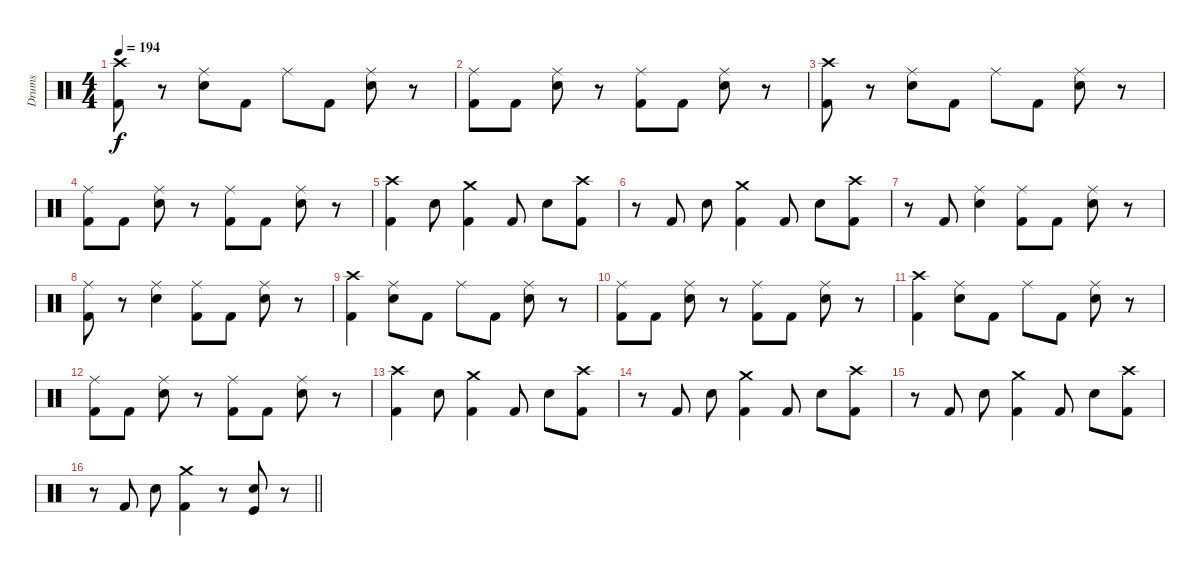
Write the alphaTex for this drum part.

\track ("Drums" "Drums") {instrument percussion}
\staff {score}
\articulation defaults
\ts (4 4)
\tempo 194
\clef neutral
\ks c
("Crash high (hit)" "Kick (hit) 2").8{dy f} r.8 ("Ride (middle)" "Snare (hit) 2").8 "Kick (hit) 2".8 "Ride (middle)".8 "Kick (hit) 2".8 ("Ride (middle)" "Snare (hit) 2").8 r.8 |
("Ride (middle)" "Kick (hit) 2").8 "Kick (hit) 2".8 ("Ride (middle)" "Snare (hit) 2").8 r.8 ("Ride (middle)" "Kick (hit) 2").8 "Kick (hit) 2".8 ("Ride (middle)" "Snare (hit) 2").8 r.8 |
("Crash high (hit)" "Kick (hit) 2").8 r.8 ("Ride (middle)" "Snare (hit) 2").8 "Kick (hit) 2".8 "Ride (middle)".8 "Kick (hit) 2".8 ("Ride (middle)" "Snare (hit) 2").8 r.8 |
("Ride (middle)" "Kick (hit) 2").8 "Kick (hit) 2".8 ("Ride (middle)" "Snare (hit) 2").8 r.8 ("Ride (middle)" "Kick (hit) 2").8 "Kick (hit) 2".8 ("Ride (middle)" "Snare (hit) 2").8 r.8 |
("Crash high (hit)" "Kick (hit) 2").4 "Snare (hit) 2".8 ("Crash medium (hit)" "Kick (hit) 2").4 "Kick (hit) 2".8 "Snare (hit) 2".8 ("Crash high (hit)" "Kick (hit) 2").8 |
r.8 "Kick (hit) 2".8 "Snare (hit) 2".8 ("Crash medium (hit)" "Kick (hit) 2").4 "Kick (hit) 2".8 "Snare (hit) 2".8 ("Crash high (hit)" "Kick (hit) 2").8 |
r.8 "Kick (hit) 2".8 ("Ride (middle)" "Snare (hit) 2").4 ("Ride (middle)" "Kick (hit) 2").8 "Kick (hit) 2".8 ("Ride (middle)" "Snare (hit) 2").8 r.8 |
("Ride (middle)" "Kick (hit) 2").8 r.8 ("Ride (middle)" "Snare (hit) 2").4 ("Ride (middle)" "Kick (hit) 2").8 "Kick (hit) 2".8 ("Ride (middle)" "Snare (hit) 2").8 r.8 |
("Crash high (hit)" "Kick (hit) 2").4 ("Ride (middle)" "Snare (hit) 2").8 "Kick (hit) 2".8 "Ride (middle)".8 "Kick (hit) 2".8 ("Ride (middle)" "Snare (hit) 2").8 r.8 |
("Ride (middle)" "Kick (hit) 2").8 "Kick (hit) 2".8 ("Ride (middle)" "Snare (hit) 2").8 r.8 ("Ride (middle)" "Kick (hit) 2").8 "Kick (hit) 2".8 ("Ride (middle)" "Snare (hit) 2").8 r.8 |
("Crash high (hit)" "Kick (hit) 2").4 ("Ride (middle)" "Snare (hit) 2").8 "Kick (hit) 2".8 "Ride (middle)".8 "Kick (hit) 2".8 ("Ride (middle)" "Snare (hit) 2").8 r.8 |
("Ride (middle)" "Kick (hit) 2").8 "Kick (hit) 2".8 ("Ride (middle)" "Snare (hit) 2").8 r.8 ("Ride (middle)" "Kick (hit) 2").8 "Kick (hit) 2".8 ("Ride (middle)" "Snare (hit) 2").8 r.8 |
("Crash high (hit)" "Kick (hit) 2").4 "Snare (hit) 2".8 ("Crash medium (hit)" "Kick (hit) 2").4 "Kick (hit) 2".8 "Snare (hit) 2".8 ("Crash high (hit)" "Kick (hit) 2").8 |
r.8 "Kick (hit) 2".8 "Snare (hit) 2".8 ("Crash medium (hit)" "Kick (hit) 2").4 "Kick (hit) 2".8 "Snare (hit) 2".8 ("Crash high (hit)" "Kick (hit) 2").8 |
r.8 "Kick (hit) 2".8 "Snare (hit) 2".8 ("Crash medium (hit)" "Kick (hit) 2").4 "Kick (hit) 2".8 "Snare (hit) 2".8 ("Crash high (hit)" "Kick (hit) 2").8 |
\barLineRight lightlight
r.8 "Kick (hit) 2".8 "Snare (hit) 2".8 ("Crash medium (hit)" "Kick (hit) 2").4 r.8 ("Kick (hit)" "Snare (hit) 2").8 r.8
